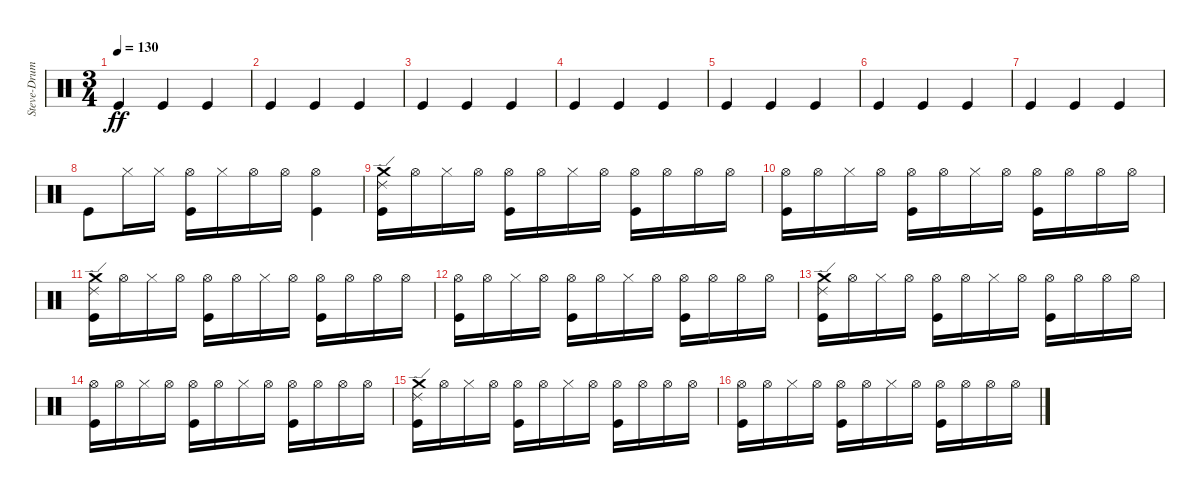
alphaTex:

\track ("Steve-Drums" "Steve-Drum") {instrument percussion}
\staff {score}
\articulation defaults
\ts (3 4)
\tempo 130
\clef neutral
\ks c "Kick (hit)".4{dy ff} "Kick (hit)".4 "Kick (hit)".4
|
"Kick (hit)".4 "Kick (hit)".4 "Kick (hit)".4 |
"Kick (hit)".4 "Kick (hit)".4 "Kick (hit)".4 |
"Kick (hit)".4 "Kick (hit)".4 "Kick (hit)".4 |
"Kick (hit)".4 "Kick (hit)".4 "Kick (hit)".4 |
"Kick (hit)".4 "Kick (hit)".4 "Kick (hit)".4 |
"Kick (hit)".4 "Kick (hit)".4 "Kick (hit)".4 |
"Kick (hit)".8 "Hi-Hat (closed)".16 "Hi-Hat (closed)".16 ("Hi-Hat (open)" "Kick (hit)").16 "Hi-Hat (closed)".16 "Hi-Hat (open)".16 "Hi-Hat (open)".16 ("Hi-Hat (open)" "Kick (hit)").4 |
("Crash medium (hit)" "Ride (edge) 2" "Kick (hit)").16 "Hi-Hat (open)".16 "Hi-Hat (closed)".16 "Hi-Hat (open)".16 ("Hi-Hat (open)" "Kick (hit)").16 "Hi-Hat (open)".16 "Hi-Hat (closed)".16 "Hi-Hat (open)".16 ("Hi-Hat (open)" "Kick (hit)").16 "Hi-Hat (open)".16 "Hi-Hat (open)".16 "Hi-Hat (open)".16 |
("Hi-Hat (open)" "Kick (hit)").16 "Hi-Hat (open)".16 "Hi-Hat (closed)".16 "Hi-Hat (open)".16 ("Hi-Hat (open)" "Kick (hit)").16 "Hi-Hat (open)".16 "Hi-Hat (closed)".16 "Hi-Hat (open)".16 ("Hi-Hat (open)" "Kick (hit)").16 "Hi-Hat (open)".16 "Hi-Hat (open)".16 "Hi-Hat (open)".16 |
("Crash medium (hit)" "Ride (edge) 2" "Kick (hit)").16 "Hi-Hat (open)".16 "Hi-Hat (closed)".16 "Hi-Hat (open)".16 ("Hi-Hat (open)" "Kick (hit)").16 "Hi-Hat (open)".16 "Hi-Hat (closed)".16 "Hi-Hat (open)".16 ("Hi-Hat (open)" "Kick (hit)").16 "Hi-Hat (open)".16 "Hi-Hat (open)".16 "Hi-Hat (open)".16 |
("Hi-Hat (open)" "Kick (hit)").16 "Hi-Hat (open)".16 "Hi-Hat (closed)".16 "Hi-Hat (open)".16 ("Hi-Hat (open)" "Kick (hit)").16 "Hi-Hat (open)".16 "Hi-Hat (closed)".16 "Hi-Hat (open)".16 ("Hi-Hat (open)" "Kick (hit)").16 "Hi-Hat (open)".16 "Hi-Hat (open)".16 "Hi-Hat (open)".16 |
("Crash medium (hit)" "Ride (edge) 2" "Kick (hit)").16 "Hi-Hat (open)".16 "Hi-Hat (closed)".16 "Hi-Hat (open)".16 ("Hi-Hat (open)" "Kick (hit)").16 "Hi-Hat (open)".16 "Hi-Hat (closed)".16 "Hi-Hat (open)".16 ("Hi-Hat (open)" "Kick (hit)").16 "Hi-Hat (open)".16 "Hi-Hat (open)".16 "Hi-Hat (open)".16 |
("Hi-Hat (open)" "Kick (hit)").16 "Hi-Hat (open)".16 "Hi-Hat (closed)".16 "Hi-Hat (open)".16 ("Hi-Hat (open)" "Kick (hit)").16 "Hi-Hat (open)".16 "Hi-Hat (closed)".16 "Hi-Hat (open)".16 ("Hi-Hat (open)" "Kick (hit)").16 "Hi-Hat (open)".16 "Hi-Hat (open)".16 "Hi-Hat (open)".16 |
("Crash medium (hit)" "Ride (edge) 2" "Kick (hit)").16 "Hi-Hat (open)".16 "Hi-Hat (closed)".16 "Hi-Hat (open)".16 ("Hi-Hat (open)" "Kick (hit)").16 "Hi-Hat (open)".16 "Hi-Hat (closed)".16 "Hi-Hat (open)".16 ("Hi-Hat (open)" "Kick (hit)").16 "Hi-Hat (open)".16 "Hi-Hat (open)".16 "Hi-Hat (open)".16 |
("Hi-Hat (open)" "Kick (hit)").16 "Hi-Hat (open)".16 "Hi-Hat (closed)".16 "Hi-Hat (open)".16 ("Hi-Hat (open)" "Kick (hit)").16 "Hi-Hat (open)".16 "Hi-Hat (closed)".16 "Hi-Hat (open)".16 ("Hi-Hat (open)" "Kick (hit)").16 "Hi-Hat (open)".16 "Hi-Hat (open)".16 "Hi-Hat (open)".16
